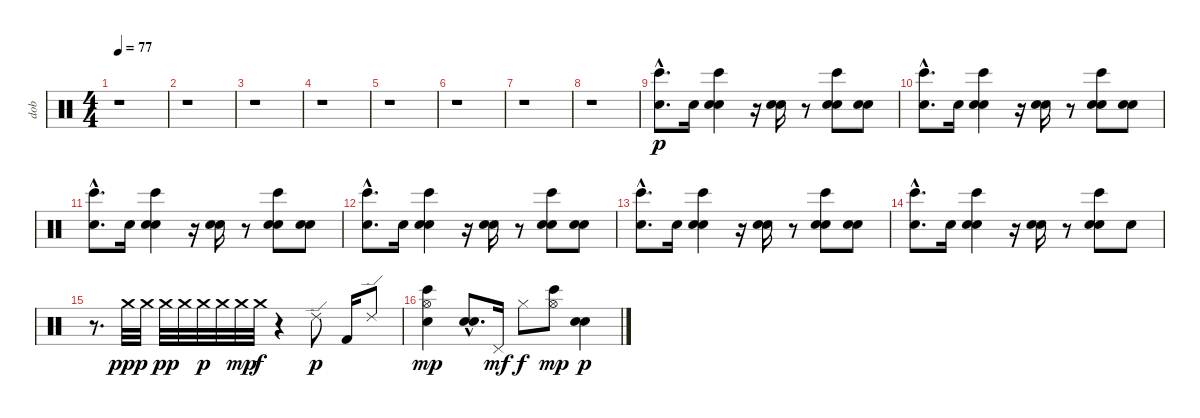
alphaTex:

\track ("dob" "dob") {instrument percussion}
\staff {score}
\articulation defaults
\ts (4 4)
\tempo 77
\clef neutral
\ks c
r.1{dy p} |
r.1 |
r.1 |
r.1 |
r.1 |
r.1 |
r.1 |
r.1 |
("Snare (hit) 2"{hac} "Bongo High (hit)"{hac}).8{d} "Electric Snare (hit)".16 ("Electric Snare (hit)" "Hand Clap (hit)" "Bongo High (hit)").4 r.16 ("Electric Snare (hit)" "Hand Clap (hit)").16 r.8 ("Electric Snare (hit)" "Hand Clap (hit)" "Bongo High (hit)").8 ("Electric Snare (hit)" "Hand Clap (hit)").8 |
("Snare (hit) 2"{hac} "Bongo High (hit)"{hac}).8{d} "Electric Snare (hit)".16 ("Electric Snare (hit)" "Hand Clap (hit)" "Bongo High (hit)").4 r.16 ("Electric Snare (hit)" "Hand Clap (hit)").16 r.8 ("Electric Snare (hit)" "Hand Clap (hit)" "Bongo High (hit)").8 ("Electric Snare (hit)" "Hand Clap (hit)").8 |
("Snare (hit) 2"{hac} "Bongo High (hit)"{hac}).8{d} "Electric Snare (hit)".16 ("Electric Snare (hit)" "Hand Clap (hit)" "Bongo High (hit)").4 r.16 ("Electric Snare (hit)" "Hand Clap (hit)").16 r.8 ("Electric Snare (hit)" "Hand Clap (hit)" "Bongo High (hit)").8 ("Electric Snare (hit)" "Hand Clap (hit)").8 |
("Snare (hit) 2"{hac} "Bongo High (hit)"{hac}).8{d} "Electric Snare (hit)".16 ("Electric Snare (hit)" "Hand Clap (hit)" "Bongo High (hit)").4 r.16 ("Electric Snare (hit)" "Hand Clap (hit)").16 r.8 ("Electric Snare (hit)" "Hand Clap (hit)" "Bongo High (hit)").8 ("Electric Snare (hit)" "Hand Clap (hit)").8 |
("Snare (hit) 2"{hac} "Bongo High (hit)"{hac}).8{d} "Electric Snare (hit)".16 ("Electric Snare (hit)" "Hand Clap (hit)" "Bongo High (hit)").4 r.16 ("Electric Snare (hit)" "Hand Clap (hit)").16 r.8 ("Electric Snare (hit)" "Hand Clap (hit)" "Bongo High (hit)").8 ("Electric Snare (hit)" "Hand Clap (hit)").8 |
("Snare (hit) 2"{hac} "Bongo High (hit)"{hac}).8{d} "Electric Snare (hit)".16 ("Electric Snare (hit)" "Hand Clap (hit)" "Bongo High (hit)").4 r.16 ("Electric Snare (hit)" "Hand Clap (hit)").16 r.8 ("Electric Snare (hit)" "Hand Clap (hit)" "Bongo High (hit)").8 "Electric Snare (hit)".8 |
r.8{d} "Crash medium (hit)".32{dy ppp} "Crash medium (hit)".32 "Crash medium (hit)".32{dy pp} "Crash medium (hit)".32 "Crash medium (hit)".32{dy p} "Crash medium (hit)".32 "Crash medium (hit)".32{dy mp} "Crash medium (hit)".32{dy f} r.4 "Ride (edge) 2".8{dy p} "Kick (hit) 2".16 "Ride (edge) 2".8 |
("Bongo High (hit)" "Snare (hit) 2" "Hi-Hat (open)").4{dy mp} ("Electric Snare (hit)"{hac} "Hand Clap (hit)"{hac}).8{d} "Pedal Hi-Hat (hit)".16{dy mf} "Hi-Hat (closed)".8{dy f} ("Bongo High (hit)" "Hi-Hat (open)").8{dy mp} ("Electric Snare (hit)" "Hand Clap (hit)").4{dy p}
